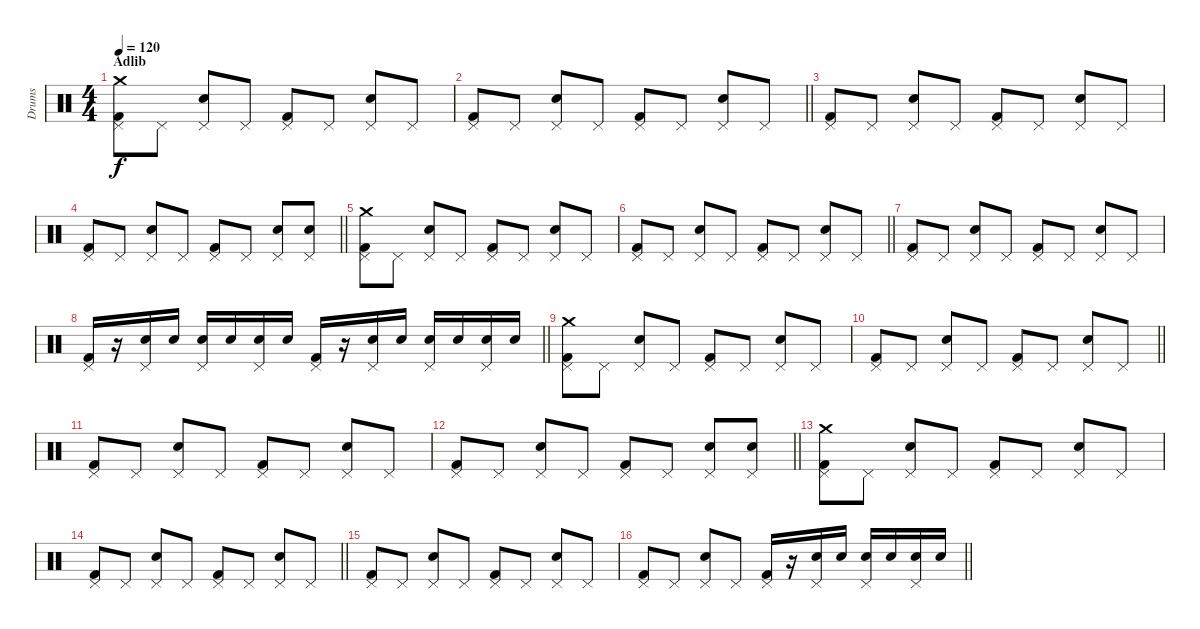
\track ("Drums" "Drums") {instrument percussion}
\staff {score}
\articulation defaults
\ts (4 4)
\section ("" "Adlib")
\tempo 120
\clef neutral
\ks c
("Kick (hit) 2" "Pedal Hi-Hat (hit)" "Crash medium (hit)").8{dy f} "Pedal Hi-Hat (hit)".8 ("Snare (hit) 2" "Pedal Hi-Hat (hit)").8 "Pedal Hi-Hat (hit)".8 ("Kick (hit) 2" "Pedal Hi-Hat (hit)").8 "Pedal Hi-Hat (hit)".8 ("Snare (hit) 2" "Pedal Hi-Hat (hit)").8 "Pedal Hi-Hat (hit)".8 |
\barLineRight lightlight
("Kick (hit) 2" "Pedal Hi-Hat (hit)").8 "Pedal Hi-Hat (hit)".8 ("Snare (hit) 2" "Pedal Hi-Hat (hit)").8 "Pedal Hi-Hat (hit)".8 ("Kick (hit) 2" "Pedal Hi-Hat (hit)").8 "Pedal Hi-Hat (hit)".8 ("Snare (hit) 2" "Pedal Hi-Hat (hit)").8 "Pedal Hi-Hat (hit)".8 |
("Kick (hit) 2" "Pedal Hi-Hat (hit)").8 "Pedal Hi-Hat (hit)".8 ("Snare (hit) 2" "Pedal Hi-Hat (hit)").8 "Pedal Hi-Hat (hit)".8 ("Kick (hit) 2" "Pedal Hi-Hat (hit)").8 "Pedal Hi-Hat (hit)".8 ("Snare (hit) 2" "Pedal Hi-Hat (hit)").8 "Pedal Hi-Hat (hit)".8 |
\barLineRight lightlight
("Kick (hit) 2" "Pedal Hi-Hat (hit)").8 "Pedal Hi-Hat (hit)".8 ("Snare (hit) 2" "Pedal Hi-Hat (hit)").8 "Pedal Hi-Hat (hit)".8 ("Kick (hit) 2" "Pedal Hi-Hat (hit)").8 "Pedal Hi-Hat (hit)".8 ("Snare (hit) 2" "Pedal Hi-Hat (hit)").8 ("Snare (hit) 2" "Pedal Hi-Hat (hit)").8 |
("Kick (hit) 2" "Pedal Hi-Hat (hit)" "Crash medium (hit)").8 "Pedal Hi-Hat (hit)".8 ("Snare (hit) 2" "Pedal Hi-Hat (hit)").8 "Pedal Hi-Hat (hit)".8 ("Kick (hit) 2" "Pedal Hi-Hat (hit)").8 "Pedal Hi-Hat (hit)".8 ("Snare (hit) 2" "Pedal Hi-Hat (hit)").8 "Pedal Hi-Hat (hit)".8 |
\barLineRight lightlight
("Kick (hit) 2" "Pedal Hi-Hat (hit)").8 "Pedal Hi-Hat (hit)".8 ("Snare (hit) 2" "Pedal Hi-Hat (hit)").8 "Pedal Hi-Hat (hit)".8 ("Kick (hit) 2" "Pedal Hi-Hat (hit)").8 "Pedal Hi-Hat (hit)".8 ("Snare (hit) 2" "Pedal Hi-Hat (hit)").8 "Pedal Hi-Hat (hit)".8 |
("Kick (hit) 2" "Pedal Hi-Hat (hit)").8 "Pedal Hi-Hat (hit)".8 ("Snare (hit) 2" "Pedal Hi-Hat (hit)").8 "Pedal Hi-Hat (hit)".8 ("Kick (hit) 2" "Pedal Hi-Hat (hit)").8 "Pedal Hi-Hat (hit)".8 ("Snare (hit) 2" "Pedal Hi-Hat (hit)").8 "Pedal Hi-Hat (hit)".8 |
\barLineRight lightlight
("Kick (hit) 2" "Pedal Hi-Hat (hit)").16 r.16 ("Snare (hit) 2" "Pedal Hi-Hat (hit)").16 "Snare (hit) 2".16 ("Snare (hit) 2" "Pedal Hi-Hat (hit)").16 "Snare (hit) 2".16 ("Snare (hit) 2" "Pedal Hi-Hat (hit)").16 "Snare (hit) 2".16 ("Kick (hit) 2" "Pedal Hi-Hat (hit)").16 r.16 ("Snare (hit) 2" "Pedal Hi-Hat (hit)").16 "Snare (hit) 2".16 ("Snare (hit) 2" "Pedal Hi-Hat (hit)").16 "Snare (hit) 2".16 ("Snare (hit) 2" "Pedal Hi-Hat (hit)").16 "Snare (hit) 2".16 |
("Kick (hit) 2" "Pedal Hi-Hat (hit)" "Crash medium (hit)").8 "Pedal Hi-Hat (hit)".8 ("Snare (hit) 2" "Pedal Hi-Hat (hit)").8 "Pedal Hi-Hat (hit)".8 ("Kick (hit) 2" "Pedal Hi-Hat (hit)").8 "Pedal Hi-Hat (hit)".8 ("Snare (hit) 2" "Pedal Hi-Hat (hit)").8 "Pedal Hi-Hat (hit)".8 |
\barLineRight lightlight
("Kick (hit) 2" "Pedal Hi-Hat (hit)").8 "Pedal Hi-Hat (hit)".8 ("Snare (hit) 2" "Pedal Hi-Hat (hit)").8 "Pedal Hi-Hat (hit)".8 ("Kick (hit) 2" "Pedal Hi-Hat (hit)").8 "Pedal Hi-Hat (hit)".8 ("Snare (hit) 2" "Pedal Hi-Hat (hit)").8 "Pedal Hi-Hat (hit)".8 |
("Kick (hit) 2" "Pedal Hi-Hat (hit)").8 "Pedal Hi-Hat (hit)".8 ("Snare (hit) 2" "Pedal Hi-Hat (hit)").8 "Pedal Hi-Hat (hit)".8 ("Kick (hit) 2" "Pedal Hi-Hat (hit)").8 "Pedal Hi-Hat (hit)".8 ("Snare (hit) 2" "Pedal Hi-Hat (hit)").8 "Pedal Hi-Hat (hit)".8 |
\barLineRight lightlight
("Kick (hit) 2" "Pedal Hi-Hat (hit)").8 "Pedal Hi-Hat (hit)".8 ("Snare (hit) 2" "Pedal Hi-Hat (hit)").8 "Pedal Hi-Hat (hit)".8 ("Kick (hit) 2" "Pedal Hi-Hat (hit)").8 "Pedal Hi-Hat (hit)".8 ("Snare (hit) 2" "Pedal Hi-Hat (hit)").8 ("Snare (hit) 2" "Pedal Hi-Hat (hit)").8 |
("Kick (hit) 2" "Pedal Hi-Hat (hit)" "Crash medium (hit)").8 "Pedal Hi-Hat (hit)".8 ("Snare (hit) 2" "Pedal Hi-Hat (hit)").8 "Pedal Hi-Hat (hit)".8 ("Kick (hit) 2" "Pedal Hi-Hat (hit)").8 "Pedal Hi-Hat (hit)".8 ("Snare (hit) 2" "Pedal Hi-Hat (hit)").8 "Pedal Hi-Hat (hit)".8 |
\barLineRight lightlight
("Kick (hit) 2" "Pedal Hi-Hat (hit)").8 "Pedal Hi-Hat (hit)".8 ("Snare (hit) 2" "Pedal Hi-Hat (hit)").8 "Pedal Hi-Hat (hit)".8 ("Kick (hit) 2" "Pedal Hi-Hat (hit)").8 "Pedal Hi-Hat (hit)".8 ("Snare (hit) 2" "Pedal Hi-Hat (hit)").8 "Pedal Hi-Hat (hit)".8 |
("Kick (hit) 2" "Pedal Hi-Hat (hit)").8 "Pedal Hi-Hat (hit)".8 ("Snare (hit) 2" "Pedal Hi-Hat (hit)").8 "Pedal Hi-Hat (hit)".8 ("Kick (hit) 2" "Pedal Hi-Hat (hit)").8 "Pedal Hi-Hat (hit)".8 ("Snare (hit) 2" "Pedal Hi-Hat (hit)").8 "Pedal Hi-Hat (hit)".8 |
\barLineRight lightlight
("Kick (hit) 2" "Pedal Hi-Hat (hit)").8 "Pedal Hi-Hat (hit)".8 ("Snare (hit) 2" "Pedal Hi-Hat (hit)").8 "Pedal Hi-Hat (hit)".8 ("Kick (hit) 2" "Pedal Hi-Hat (hit)").16 r.16 ("Snare (hit) 2" "Pedal Hi-Hat (hit)").16 "Snare (hit) 2".16 ("Snare (hit) 2" "Pedal Hi-Hat (hit)").16 "Snare (hit) 2".16 ("Snare (hit) 2" "Pedal Hi-Hat (hit)").16 "Snare (hit) 2".16
